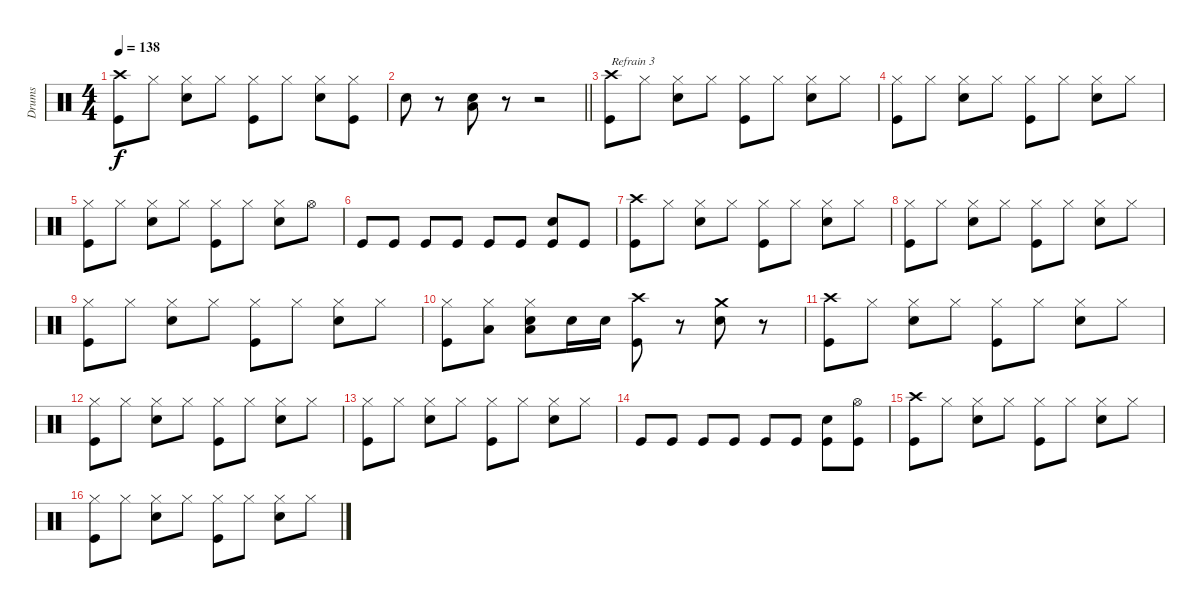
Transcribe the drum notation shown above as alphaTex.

\track ("Drums" "Drums") {instrument percussion}
\staff {score}
\articulation defaults
\ts (4 4)
\tempo 138
\clef neutral
\ks c
("Kick (hit)" "Crash high (hit)").8{dy f} "Hi-Hat (closed)".8 ("Electric Snare (hit)" "Hi-Hat (closed)").8 "Hi-Hat (closed)".8 ("Kick (hit)" "Hi-Hat (closed)").8 "Hi-Hat (closed)".8 ("Electric Snare (hit)" "Hi-Hat (closed)").8 ("Kick (hit)" "Hi-Hat (closed)").8 |
\barLineRight lightlight "Electric Snare (hit)".8
r.8 ("Electric Snare (hit)" "Low Tom (hit)").8 r.8 r.2 |
("Kick (hit)" "Crash high (hit)").8{txt "Refrain 3"} "Hi-Hat (closed)".8 ("Electric Snare (hit)" "Hi-Hat (closed)").8 "Hi-Hat (closed)".8 ("Kick (hit)" "Hi-Hat (closed)").8 "Hi-Hat (closed)".8 ("Electric Snare (hit)" "Hi-Hat (closed)").8 "Hi-Hat (closed)".8 |
("Kick (hit)" "Hi-Hat (closed)").8 "Hi-Hat (closed)".8 ("Electric Snare (hit)" "Hi-Hat (closed)").8 "Hi-Hat (closed)".8 ("Kick (hit)" "Hi-Hat (closed)").8 "Hi-Hat (closed)".8 ("Electric Snare (hit)" "Hi-Hat (closed)").8 "Hi-Hat (closed)".8 |
("Kick (hit)" "Hi-Hat (closed)").8 "Hi-Hat (closed)".8 ("Electric Snare (hit)" "Hi-Hat (closed)").8 "Hi-Hat (closed)".8 ("Kick (hit)" "Hi-Hat (closed)").8 "Hi-Hat (closed)".8 ("Electric Snare (hit)" "Hi-Hat (closed)").8 "Hi-Hat (open)".8 |
"Kick (hit)".8 "Kick (hit)".8 "Kick (hit)".8 "Kick (hit)".8 "Kick (hit)".8 "Kick (hit)".8 ("Kick (hit)" "Electric Snare (hit)").8 "Kick (hit)".8 |
("Kick (hit)" "Crash high (hit)").8 "Hi-Hat (closed)".8 ("Electric Snare (hit)" "Hi-Hat (closed)").8 "Hi-Hat (closed)".8 ("Kick (hit)" "Hi-Hat (closed)").8 "Hi-Hat (closed)".8 ("Electric Snare (hit)" "Hi-Hat (closed)").8 "Hi-Hat (closed)".8 |
("Kick (hit)" "Hi-Hat (closed)").8 "Hi-Hat (closed)".8 ("Electric Snare (hit)" "Hi-Hat (closed)").8 "Hi-Hat (closed)".8 ("Kick (hit)" "Hi-Hat (closed)").8 "Hi-Hat (closed)".8 ("Electric Snare (hit)" "Hi-Hat (closed)").8 "Hi-Hat (closed)".8 |
("Kick (hit)" "Hi-Hat (closed)").8 "Hi-Hat (closed)".8 ("Electric Snare (hit)" "Hi-Hat (closed)").8 "Hi-Hat (closed)".8 ("Kick (hit)" "Hi-Hat (closed)").8 "Hi-Hat (closed)".8 ("Electric Snare (hit)" "Hi-Hat (closed)").8 "Hi-Hat (closed)".8 |
("Kick (hit)" "Hi-Hat (closed)").8 ("Hi-Hat (closed)" "Low Tom (hit)").8 ("Electric Snare (hit)" "Hi-Hat (closed)" "Low Floor Tom (hit)").8 "Electric Snare (hit)".16 "Electric Snare (hit)".16 ("Kick (hit)" "Crash high (hit)").8 r.8 ("Electric Snare (hit)" "Crash medium (hit)").8 r.8 |
("Kick (hit)" "Crash high (hit)").8 "Hi-Hat (closed)".8 ("Electric Snare (hit)" "Hi-Hat (closed)").8 "Hi-Hat (closed)".8 ("Kick (hit)" "Hi-Hat (closed)").8 "Hi-Hat (closed)".8 ("Electric Snare (hit)" "Hi-Hat (closed)").8 "Hi-Hat (closed)".8 |
("Kick (hit)" "Hi-Hat (closed)").8 "Hi-Hat (closed)".8 ("Electric Snare (hit)" "Hi-Hat (closed)").8 "Hi-Hat (closed)".8 ("Kick (hit)" "Hi-Hat (closed)").8 "Hi-Hat (closed)".8 ("Electric Snare (hit)" "Hi-Hat (closed)").8 "Hi-Hat (closed)".8 |
("Kick (hit)" "Hi-Hat (closed)").8 "Hi-Hat (closed)".8 ("Electric Snare (hit)" "Hi-Hat (closed)").8 "Hi-Hat (closed)".8 ("Kick (hit)" "Hi-Hat (closed)").8 "Hi-Hat (closed)".8 ("Electric Snare (hit)" "Hi-Hat (closed)").8 "Hi-Hat (closed)".8 |
"Kick (hit)".8 "Kick (hit)".8 "Kick (hit)".8 "Kick (hit)".8 "Kick (hit)".8 "Kick (hit)".8 ("Kick (hit)" "Electric Snare (hit)").8 ("Kick (hit)" "Hi-Hat (open)").8 |
("Kick (hit)" "Crash high (hit)").8 "Hi-Hat (closed)".8 ("Electric Snare (hit)" "Hi-Hat (closed)").8 "Hi-Hat (closed)".8 ("Kick (hit)" "Hi-Hat (closed)").8 "Hi-Hat (closed)".8 ("Electric Snare (hit)" "Hi-Hat (closed)").8 "Hi-Hat (closed)".8 |
("Kick (hit)" "Hi-Hat (closed)").8 "Hi-Hat (closed)".8 ("Electric Snare (hit)" "Hi-Hat (closed)").8 "Hi-Hat (closed)".8 ("Kick (hit)" "Hi-Hat (closed)").8 "Hi-Hat (closed)".8 ("Electric Snare (hit)" "Hi-Hat (closed)").8 "Hi-Hat (closed)".8
